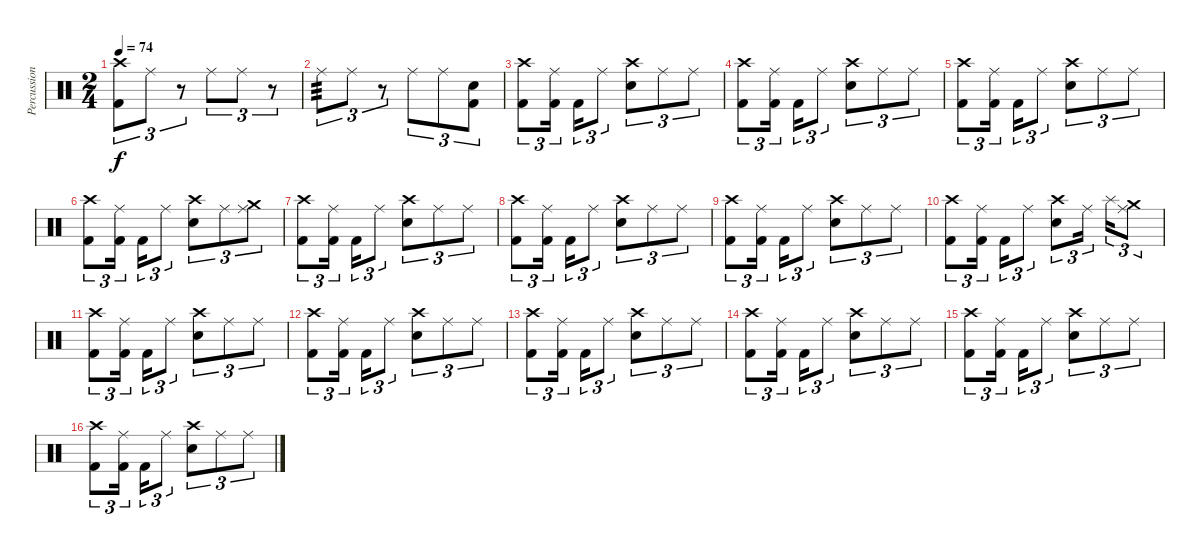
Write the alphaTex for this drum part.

\track ("Percussion" "Percussion") {instrument percussion}
\staff {score}
\articulation defaults
\ts (2 4)
\tempo 74
\clef neutral
\ks c
("Crash high (hit)" "Kick (hit) 2").8{tu (3 2) dy f} "Ride (middle)".8{tu (3 2)} r.8{tu (3 2)} "Ride (middle)".8{tu (3 2)} "Ride (middle)".8{tu (3 2)} r.8{tu (3 2)} |
"Ride (middle)".8{tu (3 2) tp 3} "Ride (middle)".8{tu (3 2)} r.8{tu (3 2)} "Ride (middle)".8{tu (3 2)} "Ride (middle)".8{tu (3 2)} ("Kick (hit) 2" "Snare (hit) 2").8{tu (3 2)} |
("Crash high (hit)" "Kick (hit) 2").8{tu (3 2)} ("Ride (middle)" "Kick (hit) 2").16{tu (3 2)} "Kick (hit) 2".16{tu (3 2)} "Ride (middle)".8{tu (3 2)} ("Crash high (hit)" "Snare (hit) 2").8{tu (3 2)} "Ride (middle)".8{tu (3 2)} "Ride (middle)".8{tu (3 2)} |
("Crash high (hit)" "Kick (hit) 2").8{tu (3 2)} ("Ride (middle)" "Kick (hit) 2").16{tu (3 2)} "Kick (hit) 2".16{tu (3 2)} "Ride (middle)".8{tu (3 2)} ("Crash high (hit)" "Snare (hit) 2").8{tu (3 2)} "Ride (middle)".8{tu (3 2)} "Ride (middle)".8{tu (3 2)} |
("Crash high (hit)" "Kick (hit) 2").8{tu (3 2)} ("Ride (middle)" "Kick (hit) 2").16{tu (3 2)} "Kick (hit) 2".16{tu (3 2)} "Ride (middle)".8{tu (3 2)} ("Crash high (hit)" "Snare (hit) 2").8{tu (3 2)} "Ride (middle)".8{tu (3 2)} "Ride (middle)".8{tu (3 2)} |
("Crash high (hit)" "Kick (hit) 2").8{tu (3 2)} ("Ride (middle)" "Kick (hit) 2").16{tu (3 2)} "Kick (hit) 2".16{tu (3 2)} "Ride (middle)".8{tu (3 2)} ("Crash high (hit)" "Snare (hit) 2").8{tu (3 2)} "Ride (middle)".8{tu (3 2)} ("Crash medium (hit)" "Ride (middle)").8{tu (3 2)} |
("Crash high (hit)" "Kick (hit) 2").8{tu (3 2)} ("Ride (middle)" "Kick (hit) 2").16{tu (3 2)} "Kick (hit) 2".16{tu (3 2)} "Ride (middle)".8{tu (3 2)} ("Crash high (hit)" "Snare (hit) 2").8{tu (3 2)} "Ride (middle)".8{tu (3 2)} "Ride (middle)".8{tu (3 2)} |
("Crash high (hit)" "Kick (hit) 2").8{tu (3 2)} ("Ride (middle)" "Kick (hit) 2").16{tu (3 2)} "Kick (hit) 2".16{tu (3 2)} "Ride (middle)".8{tu (3 2)} ("Crash high (hit)" "Snare (hit) 2").8{tu (3 2)} "Ride (middle)".8{tu (3 2)} "Ride (middle)".8{tu (3 2)} |
("Crash high (hit)" "Kick (hit) 2").8{tu (3 2)} ("Ride (middle)" "Kick (hit) 2").16{tu (3 2)} "Kick (hit) 2".16{tu (3 2)} "Ride (middle)".8{tu (3 2)} ("Crash high (hit)" "Snare (hit) 2").8{tu (3 2)} "Ride (middle)".8{tu (3 2)} "Ride (middle)".8{tu (3 2)} |
("Crash high (hit)" "Kick (hit) 2").8{tu (3 2)} ("Ride (middle)" "Kick (hit) 2").16{tu (3 2)} "Kick (hit) 2".16{tu (3 2)} "Ride (middle)".8{tu (3 2)} ("Crash high (hit)" "Snare (hit) 2").8{tu (3 2)} "Ride (middle)".16{tu (3 2)} "Splash (hit)".16{tu (3 2)} ("Ride (middle)" "Crash medium (hit)").8{tu (3 2)} |
("Crash high (hit)" "Kick (hit) 2").8{tu (3 2)} ("Ride (middle)" "Kick (hit) 2").16{tu (3 2)} "Kick (hit) 2".16{tu (3 2)} "Ride (middle)".8{tu (3 2)} ("Crash high (hit)" "Snare (hit) 2").8{tu (3 2)} "Ride (middle)".8{tu (3 2)} "Ride (middle)".8{tu (3 2)} |
("Crash high (hit)" "Kick (hit) 2").8{tu (3 2)} ("Ride (middle)" "Kick (hit) 2").16{tu (3 2)} "Kick (hit) 2".16{tu (3 2)} "Ride (middle)".8{tu (3 2)} ("Crash high (hit)" "Snare (hit) 2").8{tu (3 2)} "Ride (middle)".8{tu (3 2)} "Ride (middle)".8{tu (3 2)} |
("Crash high (hit)" "Kick (hit) 2").8{tu (3 2)} ("Ride (middle)" "Kick (hit) 2").16{tu (3 2)} "Kick (hit) 2".16{tu (3 2)} "Ride (middle)".8{tu (3 2)} ("Crash high (hit)" "Snare (hit) 2").8{tu (3 2)} "Ride (middle)".8{tu (3 2)} "Ride (middle)".8{tu (3 2)} |
("Crash high (hit)" "Kick (hit) 2").8{tu (3 2)} ("Ride (middle)" "Kick (hit) 2").16{tu (3 2)} "Kick (hit) 2".16{tu (3 2)} "Ride (middle)".8{tu (3 2)} ("Crash high (hit)" "Snare (hit) 2").8{tu (3 2)} "Ride (middle)".8{tu (3 2)} "Ride (middle)".8{tu (3 2)} |
("Crash high (hit)" "Kick (hit) 2").8{tu (3 2)} ("Ride (middle)" "Kick (hit) 2").16{tu (3 2)} "Kick (hit) 2".16{tu (3 2)} "Ride (middle)".8{tu (3 2)} ("Crash high (hit)" "Snare (hit) 2").8{tu (3 2)} "Ride (middle)".8{tu (3 2)} "Ride (middle)".8{tu (3 2)} |
("Crash high (hit)" "Kick (hit) 2").8{tu (3 2)} ("Ride (middle)" "Kick (hit) 2").16{tu (3 2)} "Kick (hit) 2".16{tu (3 2)} "Ride (middle)".8{tu (3 2)} ("Crash high (hit)" "Snare (hit) 2").8{tu (3 2)} "Ride (middle)".8{tu (3 2)} "Ride (middle)".8{tu (3 2)}
